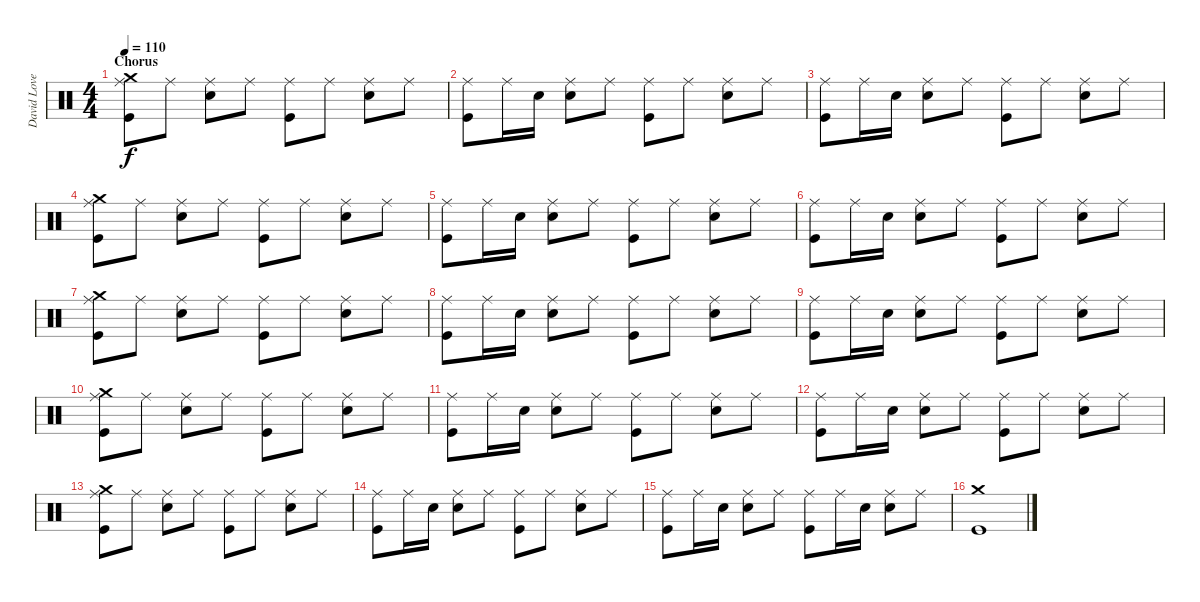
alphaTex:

\track ("David Lovering" "David Love") {instrument percussion}
\staff {score}
\articulation defaults
\ts (4 4)
\section ("" "Chorus")
\tempo 110
\clef neutral
\ks c
("Ride (middle)" "Crash medium (hit)" "Kick (hit)").8{dy f} "Ride (middle)".8 ("Ride (middle)" "Snare (hit) 2").8 "Ride (middle)".8 ("Ride (middle)" "Kick (hit)").8 "Ride (middle)".8 ("Ride (middle)" "Snare (hit) 2").8 "Ride (middle)".8 |
("Ride (middle)" "Kick (hit)").8 "Ride (middle)".16 "Snare (hit) 2".16 ("Ride (middle)" "Snare (hit) 2").8 "Ride (middle)".8 ("Ride (middle)" "Kick (hit)").8 "Ride (middle)".8 ("Ride (middle)" "Snare (hit) 2").8 "Ride (middle)".8 |
("Ride (middle)" "Kick (hit)").8 "Ride (middle)".16 "Snare (hit) 2".16 ("Ride (middle)" "Snare (hit) 2").8 "Ride (middle)".8 ("Ride (middle)" "Kick (hit)").8 "Ride (middle)".8 ("Ride (middle)" "Snare (hit) 2").8 "Ride (middle)".8 |
("Ride (middle)" "Crash medium (hit)" "Kick (hit)").8 "Ride (middle)".8 ("Ride (middle)" "Snare (hit) 2").8 "Ride (middle)".8 ("Ride (middle)" "Kick (hit)").8 "Ride (middle)".8 ("Ride (middle)" "Snare (hit) 2").8 "Ride (middle)".8 |
("Ride (middle)" "Kick (hit)").8 "Ride (middle)".16 "Snare (hit) 2".16 ("Ride (middle)" "Snare (hit) 2").8 "Ride (middle)".8 ("Ride (middle)" "Kick (hit)").8 "Ride (middle)".8 ("Ride (middle)" "Snare (hit) 2").8 "Ride (middle)".8 |
("Ride (middle)" "Kick (hit)").8 "Ride (middle)".16 "Snare (hit) 2".16 ("Ride (middle)" "Snare (hit) 2").8 "Ride (middle)".8 ("Ride (middle)" "Kick (hit)").8 "Ride (middle)".8 ("Ride (middle)" "Snare (hit) 2").8 "Ride (middle)".8 |
("Ride (middle)" "Crash medium (hit)" "Kick (hit)").8 "Ride (middle)".8 ("Ride (middle)" "Snare (hit) 2").8 "Ride (middle)".8 ("Ride (middle)" "Kick (hit)").8 "Ride (middle)".8 ("Ride (middle)" "Snare (hit) 2").8 "Ride (middle)".8 |
("Ride (middle)" "Kick (hit)").8 "Ride (middle)".16 "Snare (hit) 2".16 ("Ride (middle)" "Snare (hit) 2").8 "Ride (middle)".8 ("Ride (middle)" "Kick (hit)").8 "Ride (middle)".8 ("Ride (middle)" "Snare (hit) 2").8 "Ride (middle)".8 |
("Ride (middle)" "Kick (hit)").8 "Ride (middle)".16 "Snare (hit) 2".16 ("Ride (middle)" "Snare (hit) 2").8 "Ride (middle)".8 ("Ride (middle)" "Kick (hit)").8 "Ride (middle)".8 ("Ride (middle)" "Snare (hit) 2").8 "Ride (middle)".8 |
("Ride (middle)" "Crash medium (hit)" "Kick (hit)").8 "Ride (middle)".8 ("Ride (middle)" "Snare (hit) 2").8 "Ride (middle)".8 ("Ride (middle)" "Kick (hit)").8 "Ride (middle)".8 ("Ride (middle)" "Snare (hit) 2").8 "Ride (middle)".8 |
("Ride (middle)" "Kick (hit)").8 "Ride (middle)".16 "Snare (hit) 2".16 ("Ride (middle)" "Snare (hit) 2").8 "Ride (middle)".8 ("Ride (middle)" "Kick (hit)").8 "Ride (middle)".8 ("Ride (middle)" "Snare (hit) 2").8 "Ride (middle)".8 |
("Ride (middle)" "Kick (hit)").8 "Ride (middle)".16 "Snare (hit) 2".16 ("Ride (middle)" "Snare (hit) 2").8 "Ride (middle)".8 ("Ride (middle)" "Kick (hit)").8 "Ride (middle)".8 ("Ride (middle)" "Snare (hit) 2").8 "Ride (middle)".8 |
("Ride (middle)" "Crash medium (hit)" "Kick (hit)").8 "Ride (middle)".8 ("Ride (middle)" "Snare (hit) 2").8 "Ride (middle)".8 ("Ride (middle)" "Kick (hit)").8 "Ride (middle)".8 ("Ride (middle)" "Snare (hit) 2").8 "Ride (middle)".8 |
("Ride (middle)" "Kick (hit)").8 "Ride (middle)".16 "Snare (hit) 2".16 ("Ride (middle)" "Snare (hit) 2").8 "Ride (middle)".8 ("Ride (middle)" "Kick (hit)").8 "Ride (middle)".8 ("Ride (middle)" "Snare (hit) 2").8 "Ride (middle)".8 |
("Ride (middle)" "Kick (hit)").8 "Ride (middle)".16 "Snare (hit) 2".16 ("Ride (middle)" "Snare (hit) 2").8 "Ride (middle)".8 ("Ride (middle)" "Kick (hit)").8 "Ride (middle)".16 "Snare (hit) 2".16 ("Ride (middle)" "Snare (hit) 2").8 "Ride (middle)".8 |
("Crash medium (hit)" "Kick (hit)").1
